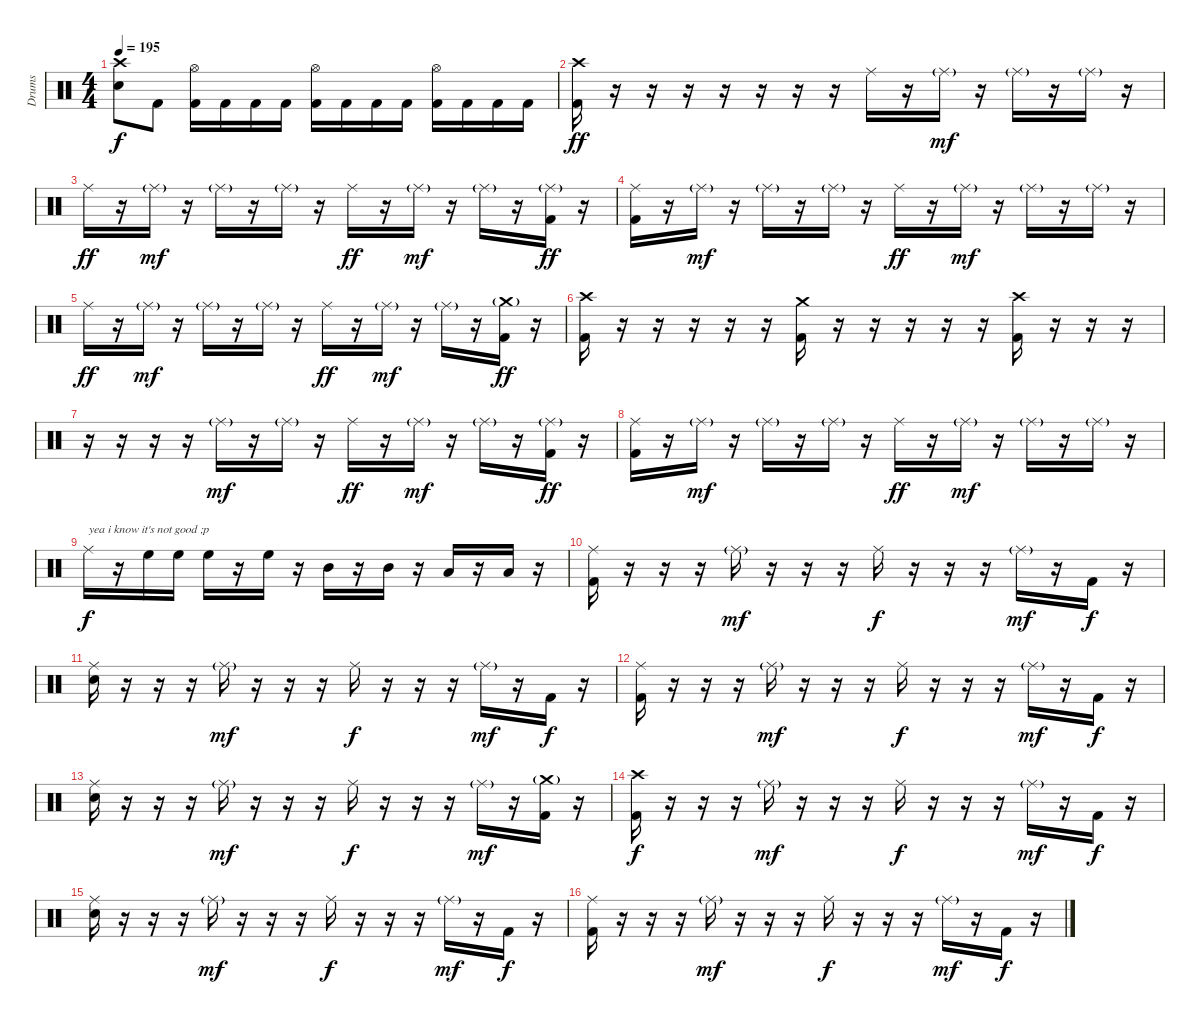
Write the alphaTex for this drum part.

\track ("Drums" "Drums") {instrument percussion}
\staff {score}
\articulation defaults
\ts (4 4)
\tempo 195
\clef neutral
\ks c
("Crash high (hit)" "Snare (hit) 2").8{dy f} "Kick (hit) 2".8 ("Hi-Hat (open)" "Kick (hit) 2").16 "Kick (hit) 2".16 "Kick (hit) 2".16 "Kick (hit) 2".16 ("Hi-Hat (open)" "Kick (hit) 2").16 "Kick (hit) 2".16 "Kick (hit) 2".16 "Kick (hit) 2".16 ("Hi-Hat (open)" "Kick (hit) 2").16 "Kick (hit) 2".16 "Kick (hit) 2".16 "Kick (hit) 2".16 |
("Crash high (hit)" "Kick (hit) 2").16{dy ff} r.16 r.16 r.16 r.16 r.16 r.16 r.16 "Ride (middle)".16 r.16 "Ride (middle)"{g}.16{dy mf} r.16 "Ride (middle)"{g}.16 r.16 "Ride (middle)"{g}.16 r.16 |
"Ride (middle)".16{dy ff} r.16 "Ride (middle)"{g}.16{dy mf} r.16 "Ride (middle)"{g}.16 r.16 "Ride (middle)"{g}.16 r.16 "Ride (middle)".16{dy ff} r.16 "Ride (middle)"{g}.16{dy mf} r.16 "Ride (middle)"{g}.16 r.16 ("Ride (middle)"{g} "Kick (hit) 2").16{dy ff} r.16 |
("Ride (middle)" "Kick (hit) 2").16 r.16 "Ride (middle)"{g}.16{dy mf} r.16 "Ride (middle)"{g}.16 r.16 "Ride (middle)"{g}.16 r.16 "Ride (middle)".16{dy ff} r.16 "Ride (middle)"{g}.16{dy mf} r.16 "Ride (middle)"{g}.16 r.16 "Ride (middle)"{g}.16 r.16 |
"Ride (middle)".16{dy ff} r.16 "Ride (middle)"{g}.16{dy mf} r.16 "Ride (middle)"{g}.16 r.16 "Ride (middle)"{g}.16 r.16 "Ride (middle)".16{dy ff} r.16 "Ride (middle)"{g}.16{dy mf} r.16 "Ride (middle)"{g}.16 r.16 ("Crash medium (hit)"{g} "Kick (hit) 2").16{dy ff} r.16 |
("Crash high (hit)" "Kick (hit) 2").16 r.16 r.16 r.16 r.16 r.16 ("Crash medium (hit)" "Kick (hit) 2").16 r.16 r.16 r.16 r.16 r.16 ("Crash high (hit)" "Kick (hit) 2").16 r.16 r.16 r.16 |
r.16 r.16 r.16 r.16 "Ride (middle)"{g}.16{dy mf} r.16 "Ride (middle)"{g}.16 r.16 "Ride (middle)".16{dy ff} r.16 "Ride (middle)"{g}.16{dy mf} r.16 "Ride (middle)"{g}.16 r.16 ("Ride (middle)"{g} "Kick (hit) 2").16{dy ff} r.16 |
("Ride (middle)" "Kick (hit) 2").16 r.16 "Ride (middle)"{g}.16{dy mf} r.16 "Ride (middle)"{g}.16 r.16 "Ride (middle)"{g}.16 r.16 "Ride (middle)".16{dy ff} r.16 "Ride (middle)"{g}.16{dy mf} r.16 "Ride (middle)"{g}.16 r.16 "Ride (middle)"{g}.16 r.16 |
"Ride (middle)".16{txt "yea i know it's not good ;p" dy f} r.16 "High Floor Tom (hit)".16 "High Floor Tom (hit)".16 "High Floor Tom (hit)".16 r.16 "High Floor Tom (hit)".16 r.16 "Mid Tom (hit)".16 r.16 "Mid Tom (hit)".16 r.16 "Low Floor Tom (hit)".16 r.16 "Low Floor Tom (hit)".16 r.16 |
("Ride (middle)" "Kick (hit) 2").16 r.16 r.16 r.16 "Ride (middle)"{g}.16{dy mf} r.16 r.16 r.16 "Ride (middle)".16{dy f} r.16 r.16 r.16 "Ride (middle)"{g}.16{dy mf} r.16 "Kick (hit) 2".16{dy f} r.16 |
("Ride (middle)" "Snare (hit) 2").16 r.16 r.16 r.16 "Ride (middle)"{g}.16{dy mf} r.16 r.16 r.16 "Ride (middle)".16{dy f} r.16 r.16 r.16 "Ride (middle)"{g}.16{dy mf} r.16 "Kick (hit) 2".16{dy f} r.16 |
("Ride (middle)" "Kick (hit) 2").16 r.16 r.16 r.16 "Ride (middle)"{g}.16{dy mf} r.16 r.16 r.16 "Ride (middle)".16{dy f} r.16 r.16 r.16 "Ride (middle)"{g}.16{dy mf} r.16 "Kick (hit) 2".16{dy f} r.16 |
("Ride (middle)" "Snare (hit) 2").16 r.16 r.16 r.16 "Ride (middle)"{g}.16{dy mf} r.16 r.16 r.16 "Ride (middle)".16{dy f} r.16 r.16 r.16 "Ride (middle)"{g}.16{dy mf} r.16 ("Crash medium (hit)"{g} "Kick (hit) 2").16 r.16 |
("Crash high (hit)" "Kick (hit) 2").16{dy f} r.16 r.16 r.16 "Ride (middle)"{g}.16{dy mf} r.16 r.16 r.16 "Ride (middle)".16{dy f} r.16 r.16 r.16 "Ride (middle)"{g}.16{dy mf} r.16 "Kick (hit) 2".16{dy f} r.16 |
("Ride (middle)" "Snare (hit) 2").16 r.16 r.16 r.16 "Ride (middle)"{g}.16{dy mf} r.16 r.16 r.16 "Ride (middle)".16{dy f} r.16 r.16 r.16 "Ride (middle)"{g}.16{dy mf} r.16 "Kick (hit) 2".16{dy f} r.16 |
("Ride (middle)" "Kick (hit) 2").16 r.16 r.16 r.16 "Ride (middle)"{g}.16{dy mf} r.16 r.16 r.16 "Ride (middle)".16{dy f} r.16 r.16 r.16 "Ride (middle)"{g}.16{dy mf} r.16 "Kick (hit) 2".16{dy f} r.16
